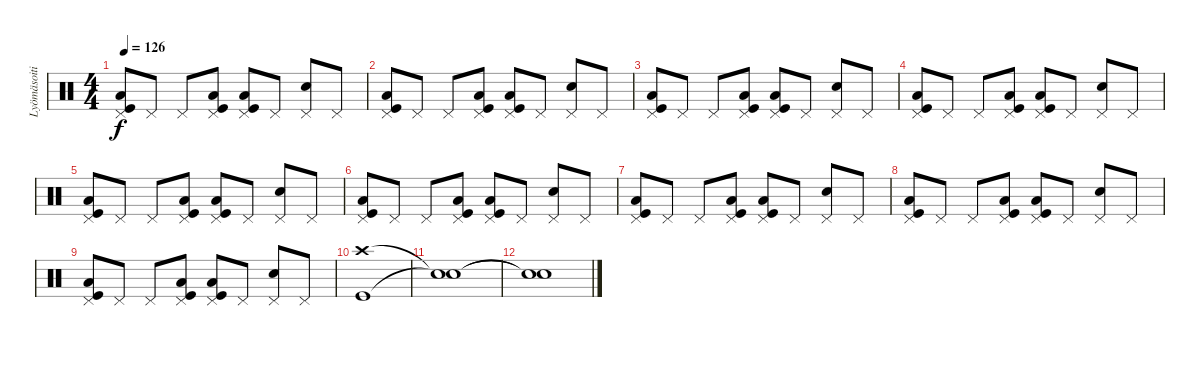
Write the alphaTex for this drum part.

\track ("Lyömäsoitin" "Lyömäsoiti") {instrument percussion}
\staff {score}
\articulation defaults
\ts (4 4)
\tempo 126
\clef neutral
\ks c
("Kick (hit)" "Low Floor Tom (hit)" "Pedal Hi-Hat (hit)").8{dy f} "Pedal Hi-Hat (hit)".8 "Pedal Hi-Hat (hit)".8 ("Kick (hit)" "Low Floor Tom (hit)" "Pedal Hi-Hat (hit)").8 ("Kick (hit)" "Low Floor Tom (hit)" "Pedal Hi-Hat (hit)").8 "Pedal Hi-Hat (hit)".8 ("Snare (hit) 2" "Pedal Hi-Hat (hit)").8 "Pedal Hi-Hat (hit)".8 |
("Kick (hit)" "Low Floor Tom (hit)" "Pedal Hi-Hat (hit)").8 "Pedal Hi-Hat (hit)".8 "Pedal Hi-Hat (hit)".8 ("Kick (hit)" "Low Floor Tom (hit)" "Pedal Hi-Hat (hit)").8 ("Kick (hit)" "Low Floor Tom (hit)" "Pedal Hi-Hat (hit)").8 "Pedal Hi-Hat (hit)".8 ("Snare (hit) 2" "Pedal Hi-Hat (hit)").8 "Pedal Hi-Hat (hit)".8 |
("Kick (hit)" "Low Floor Tom (hit)" "Pedal Hi-Hat (hit)").8 "Pedal Hi-Hat (hit)".8 "Pedal Hi-Hat (hit)".8 ("Kick (hit)" "Low Floor Tom (hit)" "Pedal Hi-Hat (hit)").8 ("Kick (hit)" "Low Floor Tom (hit)" "Pedal Hi-Hat (hit)").8 "Pedal Hi-Hat (hit)".8 ("Snare (hit) 2" "Pedal Hi-Hat (hit)").8 "Pedal Hi-Hat (hit)".8 |
("Kick (hit)" "Low Floor Tom (hit)" "Pedal Hi-Hat (hit)").8 "Pedal Hi-Hat (hit)".8 "Pedal Hi-Hat (hit)".8 ("Kick (hit)" "Low Floor Tom (hit)" "Pedal Hi-Hat (hit)").8 ("Kick (hit)" "Low Floor Tom (hit)" "Pedal Hi-Hat (hit)").8 "Pedal Hi-Hat (hit)".8 ("Snare (hit) 2" "Pedal Hi-Hat (hit)").8 "Pedal Hi-Hat (hit)".8 |
("Kick (hit)" "Low Floor Tom (hit)" "Pedal Hi-Hat (hit)").8 "Pedal Hi-Hat (hit)".8 "Pedal Hi-Hat (hit)".8 ("Kick (hit)" "Low Floor Tom (hit)" "Pedal Hi-Hat (hit)").8 ("Kick (hit)" "Low Floor Tom (hit)" "Pedal Hi-Hat (hit)").8 "Pedal Hi-Hat (hit)".8 ("Snare (hit) 2" "Pedal Hi-Hat (hit)").8 "Pedal Hi-Hat (hit)".8 |
("Kick (hit)" "Low Floor Tom (hit)" "Pedal Hi-Hat (hit)").8 "Pedal Hi-Hat (hit)".8 "Pedal Hi-Hat (hit)".8 ("Kick (hit)" "Low Floor Tom (hit)" "Pedal Hi-Hat (hit)").8 ("Kick (hit)" "Low Floor Tom (hit)" "Pedal Hi-Hat (hit)").8 "Pedal Hi-Hat (hit)".8 ("Snare (hit) 2" "Pedal Hi-Hat (hit)").8 "Pedal Hi-Hat (hit)".8 |
("Kick (hit)" "Low Floor Tom (hit)" "Pedal Hi-Hat (hit)").8 "Pedal Hi-Hat (hit)".8 "Pedal Hi-Hat (hit)".8 ("Kick (hit)" "Low Floor Tom (hit)" "Pedal Hi-Hat (hit)").8 ("Kick (hit)" "Low Floor Tom (hit)" "Pedal Hi-Hat (hit)").8 "Pedal Hi-Hat (hit)".8 ("Snare (hit) 2" "Pedal Hi-Hat (hit)").8 "Pedal Hi-Hat (hit)".8 |
("Kick (hit)" "Low Floor Tom (hit)" "Pedal Hi-Hat (hit)").8 "Pedal Hi-Hat (hit)".8 "Pedal Hi-Hat (hit)".8 ("Kick (hit)" "Low Floor Tom (hit)" "Pedal Hi-Hat (hit)").8 ("Kick (hit)" "Low Floor Tom (hit)" "Pedal Hi-Hat (hit)").8 "Pedal Hi-Hat (hit)".8 ("Snare (hit) 2" "Pedal Hi-Hat (hit)").8 "Pedal Hi-Hat (hit)".8 |
("Kick (hit)" "Low Floor Tom (hit)" "Pedal Hi-Hat (hit)").8 "Pedal Hi-Hat (hit)".8 "Pedal Hi-Hat (hit)".8 ("Kick (hit)" "Low Floor Tom (hit)" "Pedal Hi-Hat (hit)").8 ("Kick (hit)" "Low Floor Tom (hit)" "Pedal Hi-Hat (hit)").8 "Pedal Hi-Hat (hit)".8 ("Snare (hit) 2" "Pedal Hi-Hat (hit)").8 "Pedal Hi-Hat (hit)".8 |
("Kick (hit)" "Crash high (hit)").1 |
("Snare (hit)"{t} "Snare (hit)"{t}).1 |
("Snare (hit)"{t} "Snare (hit)"{t}).1
